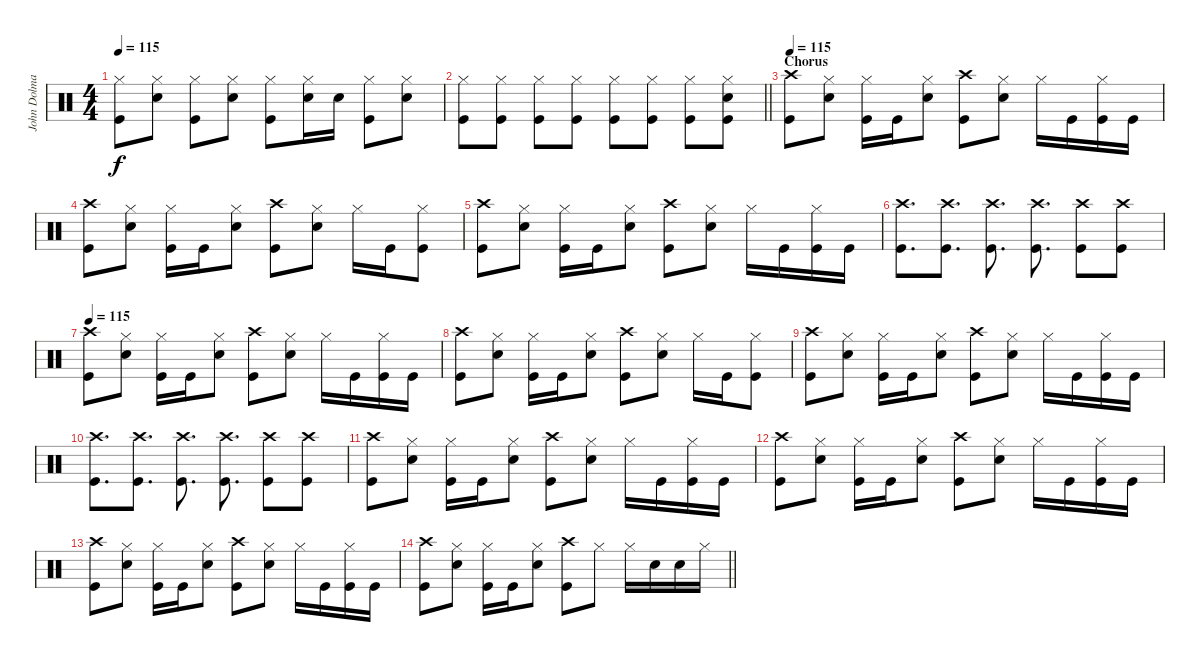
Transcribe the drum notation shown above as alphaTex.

\track ("John Dolmayan" "John Dolma") {instrument percussion}
\staff {score}
\articulation defaults
\ts (4 4)
\tempo 115
\clef neutral
\ks c
("Hi-Hat (closed)" "Kick (hit)").8{dy f} ("Hi-Hat (closed)" "Snare (hit) 2").8 ("Hi-Hat (closed)" "Kick (hit)").8 ("Hi-Hat (closed)" "Snare (hit) 2").8 ("Hi-Hat (closed)" "Kick (hit)").8 ("Hi-Hat (closed)" "Snare (hit) 2").16 "Snare (hit) 2".16 ("Hi-Hat (closed)" "Kick (hit)").8 ("Hi-Hat (closed)" "Snare (hit) 2").8 |
\barLineRight lightlight
("Hi-Hat (closed)" "Kick (hit)").8 ("Hi-Hat (closed)" "Kick (hit)").8 ("Hi-Hat (closed)" "Kick (hit)").8 ("Hi-Hat (closed)" "Kick (hit)").8 ("Hi-Hat (closed)" "Kick (hit)").8 ("Hi-Hat (closed)" "Kick (hit)").8 ("Hi-Hat (closed)" "Kick (hit)").8 ("Hi-Hat (closed)" "Snare (hit) 2" "Kick (hit)").8 |
\section ("" "Chorus")
\tempo 115
("Crash high (hit)" "Kick (hit)").8 ("Hi-Hat (closed)" "Snare (hit) 2").8 ("Hi-Hat (closed)" "Kick (hit)").16 "Kick (hit)".16 ("Hi-Hat (closed)" "Snare (hit) 2").8 ("Crash high (hit)" "Kick (hit)").8 ("Hi-Hat (closed)" "Snare (hit) 2").8 "Hi-Hat (closed)".16 "Kick (hit)".16 ("Hi-Hat (closed)" "Kick (hit)").16 "Kick (hit)".16 |
("Crash high (hit)" "Kick (hit)").8 ("Hi-Hat (closed)" "Snare (hit) 2").8 ("Hi-Hat (closed)" "Kick (hit)").16 "Kick (hit)".16 ("Hi-Hat (closed)" "Snare (hit) 2").8 ("Crash high (hit)" "Kick (hit)").8 ("Hi-Hat (closed)" "Snare (hit) 2").8 "Hi-Hat (closed)".16 "Kick (hit)".16 ("Hi-Hat (closed)" "Kick (hit)").8 |
("Crash high (hit)" "Kick (hit)").8 ("Hi-Hat (closed)" "Snare (hit) 2").8 ("Hi-Hat (closed)" "Kick (hit)").16 "Kick (hit)".16 ("Hi-Hat (closed)" "Snare (hit) 2").8 ("Crash high (hit)" "Kick (hit)").8 ("Hi-Hat (closed)" "Snare (hit) 2").8 "Hi-Hat (closed)".16 "Kick (hit)".16 ("Hi-Hat (closed)" "Kick (hit)").16 "Kick (hit)".16 |
("Crash high (hit)" "Kick (hit)").8{d} ("Crash high (hit)" "Kick (hit)").8{d} ("Crash high (hit)" "Kick (hit)").8{d} ("Crash high (hit)" "Kick (hit)").8{d} ("Crash high (hit)" "Kick (hit)").8 ("Crash high (hit)" "Kick (hit)").8 |
\tempo 115
("Crash high (hit)" "Kick (hit)").8 ("Hi-Hat (closed)" "Snare (hit) 2").8 ("Hi-Hat (closed)" "Kick (hit)").16 "Kick (hit)".16 ("Hi-Hat (closed)" "Snare (hit) 2").8 ("Crash high (hit)" "Kick (hit)").8 ("Hi-Hat (closed)" "Snare (hit) 2").8 "Hi-Hat (closed)".16 "Kick (hit)".16 ("Hi-Hat (closed)" "Kick (hit)").16 "Kick (hit)".16 |
("Crash high (hit)" "Kick (hit)").8 ("Hi-Hat (closed)" "Snare (hit) 2").8 ("Hi-Hat (closed)" "Kick (hit)").16 "Kick (hit)".16 ("Hi-Hat (closed)" "Snare (hit) 2").8 ("Crash high (hit)" "Kick (hit)").8 ("Hi-Hat (closed)" "Snare (hit) 2").8 "Hi-Hat (closed)".16 "Kick (hit)".16 ("Hi-Hat (closed)" "Kick (hit)").8 |
("Crash high (hit)" "Kick (hit)").8 ("Hi-Hat (closed)" "Snare (hit) 2").8 ("Hi-Hat (closed)" "Kick (hit)").16 "Kick (hit)".16 ("Hi-Hat (closed)" "Snare (hit) 2").8 ("Crash high (hit)" "Kick (hit)").8 ("Hi-Hat (closed)" "Snare (hit) 2").8 "Hi-Hat (closed)".16 "Kick (hit)".16 ("Hi-Hat (closed)" "Kick (hit)").16 "Kick (hit)".16 |
("Crash high (hit)" "Kick (hit)").8{d} ("Crash high (hit)" "Kick (hit)").8{d} ("Crash high (hit)" "Kick (hit)").8{d} ("Crash high (hit)" "Kick (hit)").8{d} ("Crash high (hit)" "Kick (hit)").8 ("Crash high (hit)" "Kick (hit)").8 |
("Crash high (hit)" "Kick (hit)").8 ("Hi-Hat (closed)" "Snare (hit) 2").8 ("Hi-Hat (closed)" "Kick (hit)").16 "Kick (hit)".16 ("Hi-Hat (closed)" "Snare (hit) 2").8 ("Crash high (hit)" "Kick (hit)").8 ("Hi-Hat (closed)" "Snare (hit) 2").8 "Hi-Hat (closed)".16 "Kick (hit)".16 ("Hi-Hat (closed)" "Kick (hit)").16 "Kick (hit)".16 |
("Crash high (hit)" "Kick (hit)").8 ("Hi-Hat (closed)" "Snare (hit) 2").8 ("Hi-Hat (closed)" "Kick (hit)").16 "Kick (hit)".16 ("Hi-Hat (closed)" "Snare (hit) 2").8 ("Crash high (hit)" "Kick (hit)").8 ("Hi-Hat (closed)" "Snare (hit) 2").8 "Hi-Hat (closed)".16 "Kick (hit)".16 ("Hi-Hat (closed)" "Kick (hit)").16 "Kick (hit)".16 |
("Crash high (hit)" "Kick (hit)").8 ("Hi-Hat (closed)" "Snare (hit) 2").8 ("Hi-Hat (closed)" "Kick (hit)").16 "Kick (hit)".16 ("Hi-Hat (closed)" "Snare (hit) 2").8 ("Crash high (hit)" "Kick (hit)").8 ("Hi-Hat (closed)" "Snare (hit) 2").8 "Hi-Hat (closed)".16 "Kick (hit)".16 ("Hi-Hat (closed)" "Kick (hit)").16 "Kick (hit)".16 |
\barLineRight lightlight
("Crash high (hit)" "Kick (hit)").8 ("Hi-Hat (closed)" "Snare (hit) 2").8 ("Hi-Hat (closed)" "Kick (hit)").16 "Kick (hit)".16 ("Hi-Hat (closed)" "Snare (hit) 2").8 ("Crash high (hit)" "Kick (hit)").8 "Hi-Hat (closed)".8 "Hi-Hat (closed)".16 "Snare (hit) 2".16 "Snare (hit) 2".16 "Hi-Hat (closed)".16
